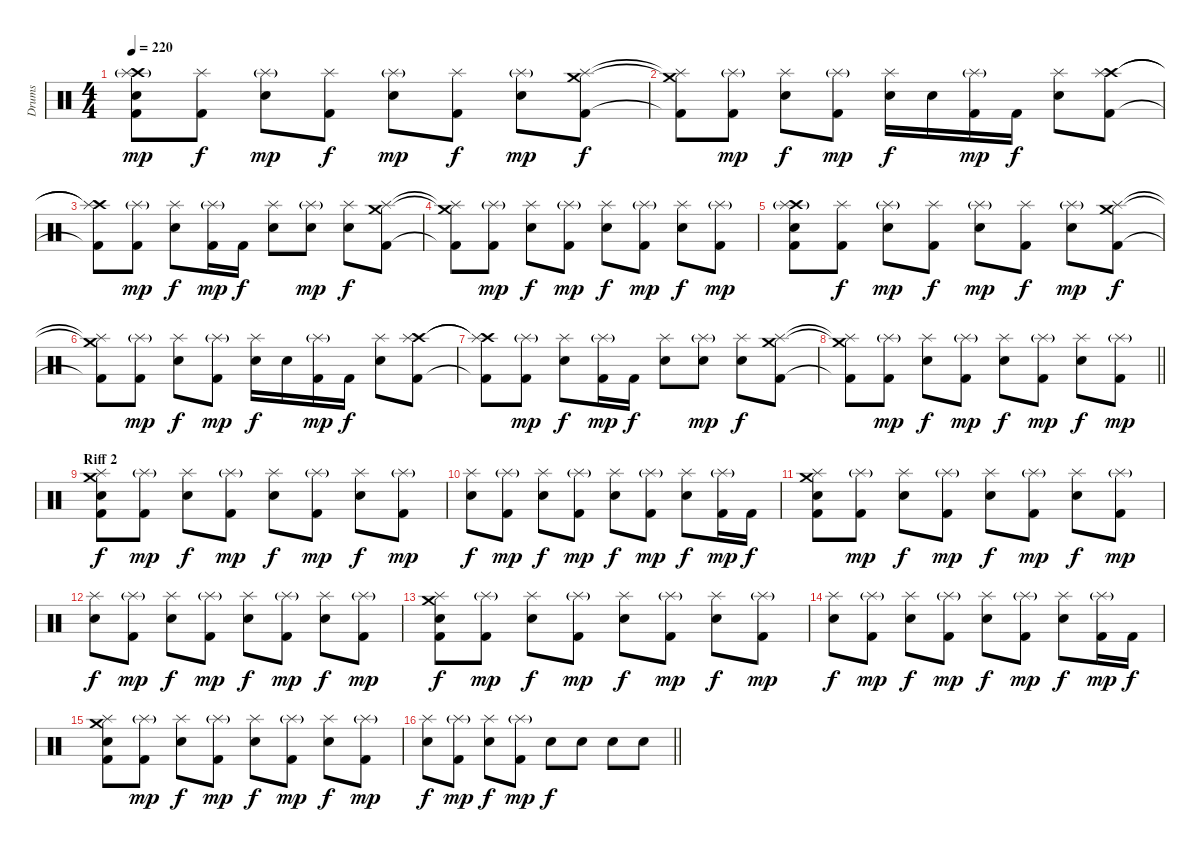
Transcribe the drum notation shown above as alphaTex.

\track ("Drums" "Drums") {instrument percussion}
\staff {score}
\articulation defaults
\ts (4 4)
\tempo 220
\clef neutral
\ks c
("Crash high (hit)" "Splash (hit)"{g} "Electric Snare (hit)" "Kick (hit) 2").8{dy mp} ("Splash (hit)" "Kick (hit) 2").8{dy f} ("Splash (hit)"{g} "Electric Snare (hit)").8{dy mp} ("Splash (hit)" "Kick (hit) 2").8{dy f} ("Splash (hit)"{g} "Electric Snare (hit)").8{dy mp} ("Splash (hit)" "Kick (hit) 2").8{dy f} ("Splash (hit)"{g} "Electric Snare (hit)").8{dy mp} ("Crash medium (hit)" "Splash (hit)" "Kick (hit) 2").8{dy f} |
("Crash medium (hit)"{t} "Splash (hit)"{t} "Kick (hit) 2"{t}).8 ("Splash (hit)"{g} "Kick (hit) 2").8{dy mp} ("Splash (hit)" "Electric Snare (hit)").8{dy f} ("Splash (hit)"{g} "Kick (hit) 2").8{dy mp} ("Splash (hit)" "Electric Snare (hit)").16{dy f} "Electric Snare (hit)".16 ("Splash (hit)"{g} "Kick (hit) 2").16{dy mp} "Kick (hit) 2".16{dy f} ("Splash (hit)" "Electric Snare (hit)").8 ("Crash high (hit)" "Splash (hit)" "Kick (hit) 2").8 |
("Crash high (hit)"{t} "Splash (hit)"{t} "Kick (hit) 2"{t}).8 ("Splash (hit)"{g} "Kick (hit) 2").8{dy mp} ("Splash (hit)" "Electric Snare (hit)").8{dy f} ("Splash (hit)"{g} "Kick (hit) 2").16{dy mp} "Kick (hit) 2".16{dy f} ("Splash (hit)" "Electric Snare (hit)").8 ("Splash (hit)"{g} "Electric Snare (hit)").8{dy mp} ("Splash (hit)" "Electric Snare (hit)").8{dy f} ("Crash medium (hit)" "Splash (hit)" "Kick (hit) 2").8 |
("Crash medium (hit)"{t} "Splash (hit)"{t} "Kick (hit) 2"{t}).8 ("Splash (hit)"{g} "Kick (hit) 2").8{dy mp} ("Splash (hit)" "Electric Snare (hit)").8{dy f} ("Splash (hit)"{g} "Kick (hit) 2").8{dy mp} ("Splash (hit)" "Electric Snare (hit)").8{dy f} ("Splash (hit)"{g} "Kick (hit) 2").8{dy mp} ("Splash (hit)" "Electric Snare (hit)").8{dy f} ("Splash (hit)"{g} "Kick (hit) 2").8{dy mp} |
("Crash high (hit)" "Splash (hit)"{g} "Electric Snare (hit)" "Kick (hit) 2").8 ("Splash (hit)" "Kick (hit) 2").8{dy f} ("Splash (hit)"{g} "Electric Snare (hit)").8{dy mp} ("Splash (hit)" "Kick (hit) 2").8{dy f} ("Splash (hit)"{g} "Electric Snare (hit)").8{dy mp} ("Splash (hit)" "Kick (hit) 2").8{dy f} ("Splash (hit)"{g} "Electric Snare (hit)").8{dy mp} ("Crash medium (hit)" "Splash (hit)" "Kick (hit) 2").8{dy f} |
("Crash medium (hit)"{t} "Splash (hit)"{t} "Kick (hit) 2"{t}).8 ("Splash (hit)"{g} "Kick (hit) 2").8{dy mp} ("Splash (hit)" "Electric Snare (hit)").8{dy f} ("Splash (hit)"{g} "Kick (hit) 2").8{dy mp} ("Splash (hit)" "Electric Snare (hit)").16{dy f} "Electric Snare (hit)".16 ("Splash (hit)"{g} "Kick (hit) 2").16{dy mp} "Kick (hit) 2".16{dy f} ("Splash (hit)" "Electric Snare (hit)").8 ("Crash high (hit)" "Splash (hit)" "Kick (hit) 2").8 |
("Crash high (hit)"{t} "Splash (hit)"{t} "Kick (hit) 2"{t}).8 ("Splash (hit)"{g} "Kick (hit) 2").8{dy mp} ("Splash (hit)" "Electric Snare (hit)").8{dy f} ("Splash (hit)"{g} "Kick (hit) 2").16{dy mp} "Kick (hit) 2".16{dy f} ("Splash (hit)" "Electric Snare (hit)").8 ("Splash (hit)"{g} "Electric Snare (hit)").8{dy mp} ("Splash (hit)" "Electric Snare (hit)").8{dy f} ("Crash medium (hit)" "Splash (hit)" "Kick (hit) 2").8 |
\barLineRight lightlight
("Crash medium (hit)"{t} "Splash (hit)"{t} "Kick (hit) 2"{t}).8 ("Splash (hit)"{g} "Kick (hit) 2").8{dy mp} ("Splash (hit)" "Electric Snare (hit)").8{dy f} ("Splash (hit)"{g} "Kick (hit) 2").8{dy mp} ("Splash (hit)" "Electric Snare (hit)").8{dy f} ("Splash (hit)"{g} "Kick (hit) 2").8{dy mp} ("Splash (hit)" "Electric Snare (hit)").8{dy f} ("Splash (hit)"{g} "Kick (hit) 2").8{dy mp} |
\section ("" "Riff 2")
("Crash medium (hit)" "Splash (hit)" "Electric Snare (hit)" "Kick (hit) 2").8{dy f} ("Splash (hit)"{g} "Kick (hit) 2").8{dy mp} ("Splash (hit)" "Electric Snare (hit)").8{dy f} ("Splash (hit)"{g} "Kick (hit) 2").8{dy mp} ("Splash (hit)" "Electric Snare (hit)").8{dy f} ("Splash (hit)"{g} "Kick (hit) 2").8{dy mp} ("Splash (hit)" "Electric Snare (hit)").8{dy f} ("Splash (hit)"{g} "Kick (hit) 2").8{dy mp} |
("Splash (hit)" "Electric Snare (hit)").8{dy f} ("Splash (hit)"{g} "Kick (hit) 2").8{dy mp} ("Splash (hit)" "Electric Snare (hit)").8{dy f} ("Splash (hit)"{g} "Kick (hit) 2").8{dy mp} ("Splash (hit)" "Electric Snare (hit)").8{dy f} ("Splash (hit)"{g} "Kick (hit) 2").8{dy mp} ("Splash (hit)" "Electric Snare (hit)").8{dy f} ("Splash (hit)"{g} "Kick (hit) 2").16{dy mp} "Kick (hit) 2".16{dy f} |
("Crash medium (hit)" "Splash (hit)" "Electric Snare (hit)" "Kick (hit) 2").8 ("Splash (hit)"{g} "Kick (hit) 2").8{dy mp} ("Splash (hit)" "Electric Snare (hit)").8{dy f} ("Splash (hit)"{g} "Kick (hit) 2").8{dy mp} ("Splash (hit)" "Electric Snare (hit)").8{dy f} ("Splash (hit)"{g} "Kick (hit) 2").8{dy mp} ("Splash (hit)" "Electric Snare (hit)").8{dy f} ("Splash (hit)"{g} "Kick (hit) 2").8{dy mp} |
("Splash (hit)" "Electric Snare (hit)").8{dy f} ("Splash (hit)"{g} "Kick (hit) 2").8{dy mp} ("Splash (hit)" "Electric Snare (hit)").8{dy f} ("Splash (hit)"{g} "Kick (hit) 2").8{dy mp} ("Splash (hit)" "Electric Snare (hit)").8{dy f} ("Splash (hit)"{g} "Kick (hit) 2").8{dy mp} ("Splash (hit)" "Electric Snare (hit)").8{dy f} ("Splash (hit)"{g} "Kick (hit) 2").8{dy mp} |
("Crash medium (hit)" "Splash (hit)" "Electric Snare (hit)" "Kick (hit) 2").8{dy f} ("Splash (hit)"{g} "Kick (hit) 2").8{dy mp} ("Splash (hit)" "Electric Snare (hit)").8{dy f} ("Splash (hit)"{g} "Kick (hit) 2").8{dy mp} ("Splash (hit)" "Electric Snare (hit)").8{dy f} ("Splash (hit)"{g} "Kick (hit) 2").8{dy mp} ("Splash (hit)" "Electric Snare (hit)").8{dy f} ("Splash (hit)"{g} "Kick (hit) 2").8{dy mp} |
("Splash (hit)" "Electric Snare (hit)").8{dy f} ("Splash (hit)"{g} "Kick (hit) 2").8{dy mp} ("Splash (hit)" "Electric Snare (hit)").8{dy f} ("Splash (hit)"{g} "Kick (hit) 2").8{dy mp} ("Splash (hit)" "Electric Snare (hit)").8{dy f} ("Splash (hit)"{g} "Kick (hit) 2").8{dy mp} ("Splash (hit)" "Electric Snare (hit)").8{dy f} ("Splash (hit)"{g} "Kick (hit) 2").16{dy mp} "Kick (hit) 2".16{dy f} |
("Crash medium (hit)" "Splash (hit)" "Electric Snare (hit)" "Kick (hit) 2").8 ("Splash (hit)"{g} "Kick (hit) 2").8{dy mp} ("Splash (hit)" "Electric Snare (hit)").8{dy f} ("Splash (hit)"{g} "Kick (hit) 2").8{dy mp} ("Splash (hit)" "Electric Snare (hit)").8{dy f} ("Splash (hit)"{g} "Kick (hit) 2").8{dy mp} ("Splash (hit)" "Electric Snare (hit)").8{dy f} ("Splash (hit)"{g} "Kick (hit) 2").8{dy mp} |
\barLineRight lightlight
("Splash (hit)" "Electric Snare (hit)").8{dy f} ("Splash (hit)"{g} "Kick (hit) 2").8{dy mp} ("Splash (hit)" "Electric Snare (hit)").8{dy f} ("Splash (hit)"{g} "Kick (hit) 2").8{dy mp} "Electric Snare (hit)".8{dy f} "Electric Snare (hit)".8 "Electric Snare (hit)".8 "Electric Snare (hit)".8
